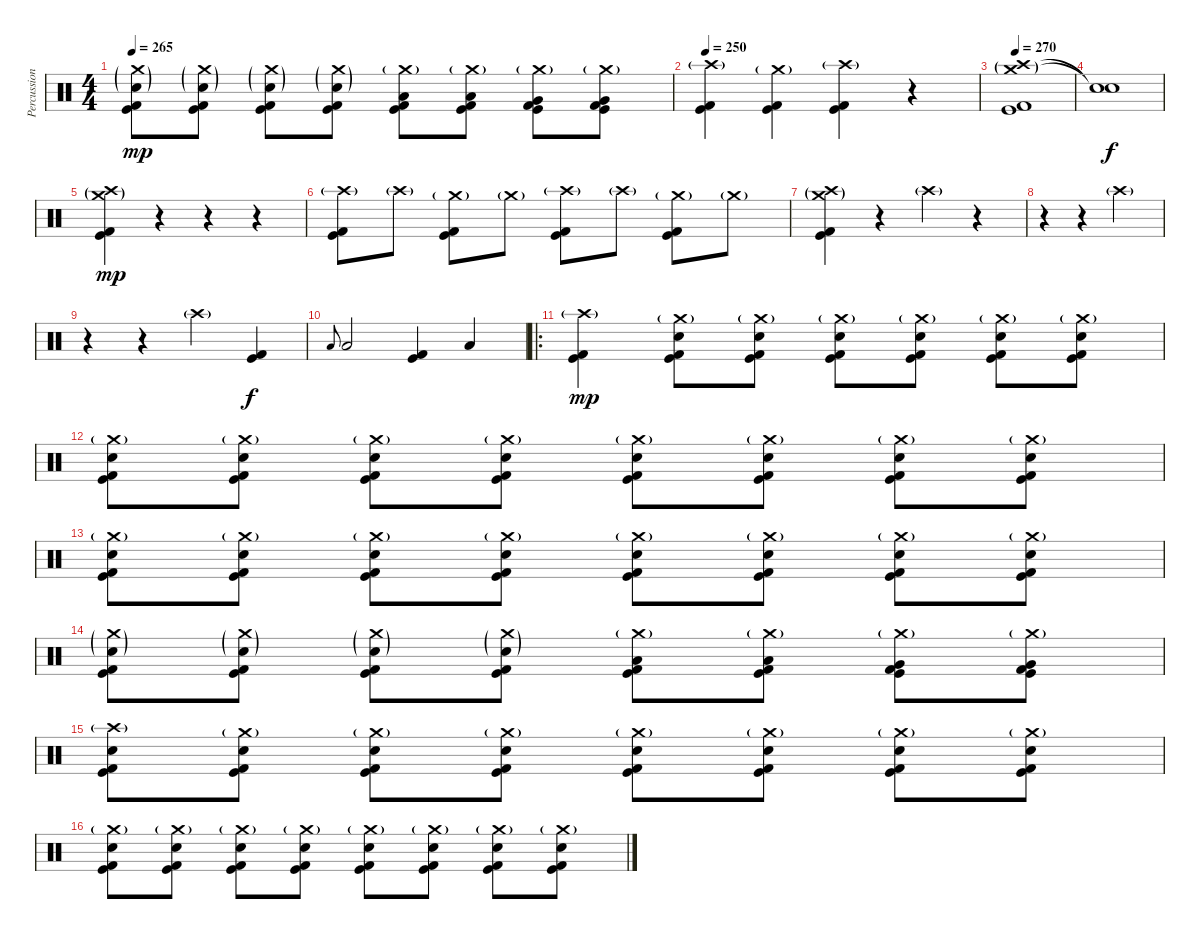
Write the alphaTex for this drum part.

\track ("Percussion" "Percussion") {instrument percussion}
\staff {score}
\articulation defaults
\ts (4 4)
\tempo 265
\clef neutral
\ks c
("Crash medium (hit)"{g} "Electric Snare (hit)"{g} "Kick (hit)" "Kick (hit) 2").8{dy mp} ("Crash medium (hit)"{g} "Electric Snare (hit)"{g} "Kick (hit)" "Kick (hit) 2").8 ("Crash medium (hit)"{g} "Electric Snare (hit)"{g} "Kick (hit)" "Kick (hit) 2").8 ("Crash medium (hit)"{g} "Electric Snare (hit)"{g} "Kick (hit)" "Kick (hit) 2").8 ("Crash medium (hit)"{g} "Low Tom (hit)" "Kick (hit)" "Kick (hit) 2").8 ("Crash medium (hit)"{g} "Low Tom (hit)" "Kick (hit)" "Kick (hit) 2").8 ("Crash medium (hit)"{g} "Very Low Tom (hit)" "Kick (hit)" "Kick (hit) 2").8 ("Crash medium (hit)"{g} "Very Low Tom (hit)" "Kick (hit)" "Kick (hit) 2").8 |
\tempo 250
("Crash high (hit)"{g} "Kick (hit)" "Kick (hit) 2").4 ("Crash medium (hit)"{g} "Kick (hit)" "Kick (hit) 2").4 ("Crash high (hit)"{g} "Kick (hit)" "Kick (hit) 2").4 r.4 |
\tempo 270
("Crash high (hit)"{g} "Crash medium (hit)"{g} "Kick (hit)" "Kick (hit) 2").1 |
("Snare (hit)"{t} "Snare (hit)"{t}).1{dy f} |
("Crash high (hit)"{g} "Crash medium (hit)"{g} "Kick (hit)" "Kick (hit) 2").4{dy mp} r.4 r.4 r.4 |
("Crash high (hit)"{g} "Kick (hit)" "Kick (hit) 2").8 "Crash high (hit)"{g}.8 ("Crash medium (hit)"{g} "Kick (hit)" "Kick (hit) 2").8 "Crash medium (hit)"{g}.8 ("Crash high (hit)"{g} "Kick (hit)" "Kick (hit) 2").8 "Crash high (hit)"{g}.8 ("Crash medium (hit)"{g} "Kick (hit)" "Kick (hit) 2").8 "Crash medium (hit)"{g}.8 |
("Crash high (hit)"{g} "Crash medium (hit)"{g} "Kick (hit)" "Kick (hit) 2").4 r.4 "Crash high (hit)"{g}.4 r.4 |
r.4 r.4 "Crash high (hit)"{g}.2 |
r.4 r.4 "Crash high (hit)"{g}.4 ("Kick (hit)" "Kick (hit) 2").4{dy f} |
"Low Tom (hit)".8{gr onbeat} "Low Tom (hit)".2 ("Kick (hit)" "Kick (hit) 2").4 "Low Tom (hit)".4 |
\ro
("Crash high (hit)"{g} "Kick (hit)" "Kick (hit) 2").4{dy mp} ("Crash medium (hit)"{g} "Electric Snare (hit)" "Kick (hit)" "Kick (hit) 2").8 ("Crash medium (hit)"{g} "Electric Snare (hit)" "Kick (hit)" "Kick (hit) 2").8 ("Crash medium (hit)"{g} "Electric Snare (hit)" "Kick (hit)" "Kick (hit) 2").8 ("Crash medium (hit)"{g} "Electric Snare (hit)" "Kick (hit)" "Kick (hit) 2").8 ("Crash medium (hit)"{g} "Electric Snare (hit)" "Kick (hit)" "Kick (hit) 2").8 ("Crash medium (hit)"{g} "Electric Snare (hit)" "Kick (hit)" "Kick (hit) 2").8 |
("Crash medium (hit)"{g} "Electric Snare (hit)" "Kick (hit)" "Kick (hit) 2").8 ("Crash medium (hit)"{g} "Electric Snare (hit)" "Kick (hit)" "Kick (hit) 2").8 ("Crash medium (hit)"{g} "Electric Snare (hit)" "Kick (hit)" "Kick (hit) 2").8 ("Crash medium (hit)"{g} "Electric Snare (hit)" "Kick (hit)" "Kick (hit) 2").8 ("Crash medium (hit)"{g} "Electric Snare (hit)" "Kick (hit)" "Kick (hit) 2").8 ("Crash medium (hit)"{g} "Electric Snare (hit)" "Kick (hit)" "Kick (hit) 2").8 ("Crash medium (hit)"{g} "Electric Snare (hit)" "Kick (hit)" "Kick (hit) 2").8 ("Crash medium (hit)"{g} "Electric Snare (hit)" "Kick (hit)" "Kick (hit) 2").8 |
("Crash medium (hit)"{g} "Electric Snare (hit)" "Kick (hit)" "Kick (hit) 2").8 ("Crash medium (hit)"{g} "Electric Snare (hit)" "Kick (hit)" "Kick (hit) 2").8 ("Crash medium (hit)"{g} "Electric Snare (hit)" "Kick (hit)" "Kick (hit) 2").8 ("Crash medium (hit)"{g} "Electric Snare (hit)" "Kick (hit)" "Kick (hit) 2").8 ("Crash medium (hit)"{g} "Electric Snare (hit)" "Kick (hit)" "Kick (hit) 2").8 ("Crash medium (hit)"{g} "Electric Snare (hit)" "Kick (hit)" "Kick (hit) 2").8 ("Crash medium (hit)"{g} "Electric Snare (hit)" "Kick (hit)" "Kick (hit) 2").8 ("Crash medium (hit)"{g} "Electric Snare (hit)" "Kick (hit)" "Kick (hit) 2").8 |
("Crash medium (hit)"{g} "Electric Snare (hit)"{g} "Kick (hit)" "Kick (hit) 2").8 ("Crash medium (hit)"{g} "Electric Snare (hit)"{g} "Kick (hit)" "Kick (hit) 2").8 ("Crash medium (hit)"{g} "Electric Snare (hit)"{g} "Kick (hit)" "Kick (hit) 2").8 ("Crash medium (hit)"{g} "Electric Snare (hit)"{g} "Kick (hit)" "Kick (hit) 2").8 ("Crash medium (hit)"{g} "Low Tom (hit)" "Kick (hit)" "Kick (hit) 2").8 ("Crash medium (hit)"{g} "Low Tom (hit)" "Kick (hit)" "Kick (hit) 2").8 ("Crash medium (hit)"{g} "Very Low Tom (hit)" "Kick (hit)" "Kick (hit) 2").8 ("Crash medium (hit)"{g} "Very Low Tom (hit)" "Kick (hit)" "Kick (hit) 2").8 |
("Crash high (hit)"{g} "Electric Snare (hit)" "Kick (hit)" "Kick (hit) 2").8 ("Crash medium (hit)"{g} "Electric Snare (hit)" "Kick (hit)" "Kick (hit) 2").8 ("Crash medium (hit)"{g} "Electric Snare (hit)" "Kick (hit)" "Kick (hit) 2").8 ("Crash medium (hit)"{g} "Electric Snare (hit)" "Kick (hit)" "Kick (hit) 2").8 ("Crash medium (hit)"{g} "Electric Snare (hit)" "Kick (hit)" "Kick (hit) 2").8 ("Crash medium (hit)"{g} "Electric Snare (hit)" "Kick (hit)" "Kick (hit) 2").8 ("Crash medium (hit)"{g} "Electric Snare (hit)" "Kick (hit)" "Kick (hit) 2").8 ("Crash medium (hit)"{g} "Electric Snare (hit)" "Kick (hit)" "Kick (hit) 2").8 |
("Crash medium (hit)"{g} "Electric Snare (hit)" "Kick (hit)" "Kick (hit) 2").8 ("Crash medium (hit)"{g} "Electric Snare (hit)" "Kick (hit)" "Kick (hit) 2").8 ("Crash medium (hit)"{g} "Electric Snare (hit)" "Kick (hit)" "Kick (hit) 2").8 ("Crash medium (hit)"{g} "Electric Snare (hit)" "Kick (hit)" "Kick (hit) 2").8 ("Crash medium (hit)"{g} "Electric Snare (hit)" "Kick (hit)" "Kick (hit) 2").8 ("Crash medium (hit)"{g} "Electric Snare (hit)" "Kick (hit)" "Kick (hit) 2").8 ("Crash medium (hit)"{g} "Electric Snare (hit)" "Kick (hit)" "Kick (hit) 2").8 ("Crash medium (hit)"{g} "Electric Snare (hit)" "Kick (hit)" "Kick (hit) 2").8
